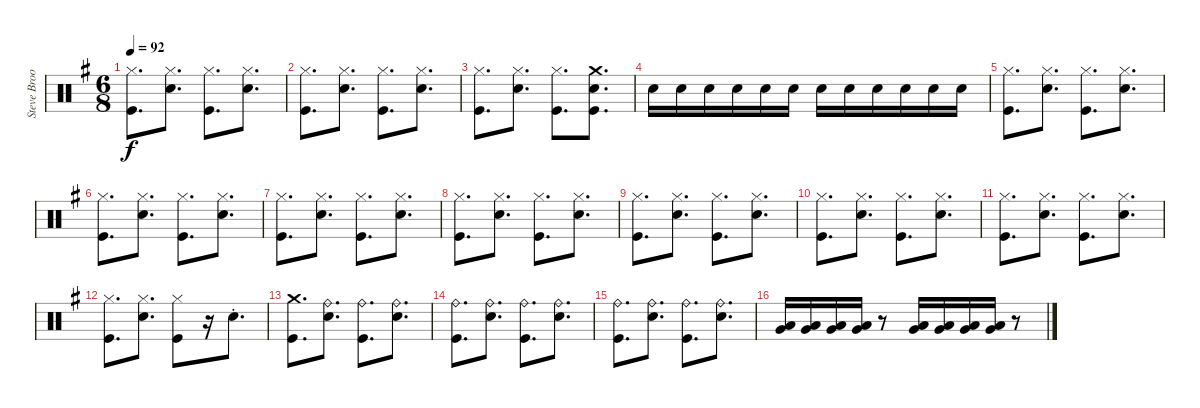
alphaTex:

\track ("Steve Brookins Drums" "Steve Broo") {instrument percussion}
\staff {score}
\articulation defaults
\ts (6 8)
\tempo 92
\clef neutral
\ks g
("Hi-Hat (closed)" "Kick (hit)").8{d dy f} ("Hi-Hat (closed)" "Snare (hit) 2").8{d} ("Hi-Hat (closed)" "Kick (hit)").8{d} ("Hi-Hat (closed)" "Snare (hit) 2").8{d} |
("Hi-Hat (closed)" "Kick (hit)").8{d} ("Hi-Hat (closed)" "Snare (hit) 2").8{d} ("Hi-Hat (closed)" "Kick (hit)").8{d} ("Hi-Hat (closed)" "Snare (hit) 2").8{d} |
("Hi-Hat (closed)" "Kick (hit)").8{d} ("Hi-Hat (closed)" "Snare (hit) 2").8{d} ("Hi-Hat (closed)" "Kick (hit)").8{d} ("Crash medium (hit)" "Snare (hit) 2" "Kick (hit)").8{d} |
"Snare (hit) 2".16 "Snare (hit) 2".16 "Snare (hit) 2".16 "Snare (hit) 2".16 "Snare (hit) 2".16 "Snare (hit) 2".16 "Snare (hit) 2".16 "Snare (hit) 2".16 "Snare (hit) 2".16 "Snare (hit) 2".16 "Snare (hit) 2".16 "Snare (hit) 2".16 |
("Hi-Hat (closed)" "Kick (hit)").8{d} ("Hi-Hat (closed)" "Snare (hit) 2").8{d} ("Hi-Hat (closed)" "Kick (hit)").8{d} ("Hi-Hat (closed)" "Snare (hit) 2").8{d} |
("Hi-Hat (closed)" "Kick (hit)").8{d} ("Hi-Hat (closed)" "Snare (hit) 2").8{d} ("Hi-Hat (closed)" "Kick (hit)").8{d} ("Hi-Hat (closed)" "Snare (hit) 2").8{d} |
("Hi-Hat (closed)" "Kick (hit)").8{d} ("Hi-Hat (closed)" "Snare (hit) 2").8{d} ("Hi-Hat (closed)" "Kick (hit)").8{d} ("Hi-Hat (closed)" "Snare (hit) 2").8{d} |
("Hi-Hat (closed)" "Kick (hit)").8{d} ("Hi-Hat (closed)" "Snare (hit) 2").8{d} ("Hi-Hat (closed)" "Kick (hit)").8{d} ("Hi-Hat (closed)" "Snare (hit) 2").8{d} |
("Hi-Hat (closed)" "Kick (hit)").8{d} ("Hi-Hat (closed)" "Snare (hit) 2").8{d} ("Hi-Hat (closed)" "Kick (hit)").8{d} ("Hi-Hat (closed)" "Snare (hit) 2").8{d} |
("Hi-Hat (closed)" "Kick (hit)").8{d} ("Hi-Hat (closed)" "Snare (hit) 2").8{d} ("Hi-Hat (closed)" "Kick (hit)").8{d} ("Hi-Hat (closed)" "Snare (hit) 2").8{d} |
("Hi-Hat (closed)" "Kick (hit)").8{d} ("Hi-Hat (closed)" "Snare (hit) 2").8{d} ("Hi-Hat (closed)" "Kick (hit)").8{d} ("Hi-Hat (closed)" "Snare (hit) 2").8{d} |
("Hi-Hat (closed)" "Kick (hit)").8{d} ("Hi-Hat (closed)" "Snare (hit) 2").8{d} ("Hi-Hat (closed)" "Kick (hit)").8 r.16 "Snare (hit) 2"{st}.8{d} |
("Crash medium (hit)" "Kick (hit)").8{d} ("Ride (bell)" "Snare (hit) 2").8{d} ("Ride (bell)" "Kick (hit)").8{d} ("Ride (bell)" "Snare (hit) 2").8{d} |
("Ride (bell)" "Kick (hit)").8{d} ("Ride (bell)" "Snare (hit) 2").8{d} ("Ride (bell)" "Kick (hit)").8{d} ("Ride (bell)" "Snare (hit) 2").8{d} |
("Ride (bell)" "Kick (hit)").8{d} ("Ride (bell)" "Snare (hit) 2").8{d} ("Ride (bell)" "Kick (hit)").8{d} ("Ride (bell)" "Snare (hit) 2").8{d} |
("Low Tom (hit)" "Very Low Tom (hit)").16 ("Low Tom (hit)" "Very Low Tom (hit)").16 ("Low Tom (hit)" "Very Low Tom (hit)").16 ("Low Tom (hit)" "Very Low Tom (hit)").16 r.8 ("Very Low Tom (hit)" "Low Floor Tom (hit)").16 ("Very Low Tom (hit)" "Low Floor Tom (hit)").16 ("Very Low Tom (hit)" "Low Floor Tom (hit)").16 ("Very Low Tom (hit)" "Low Floor Tom (hit)").16 r.8
